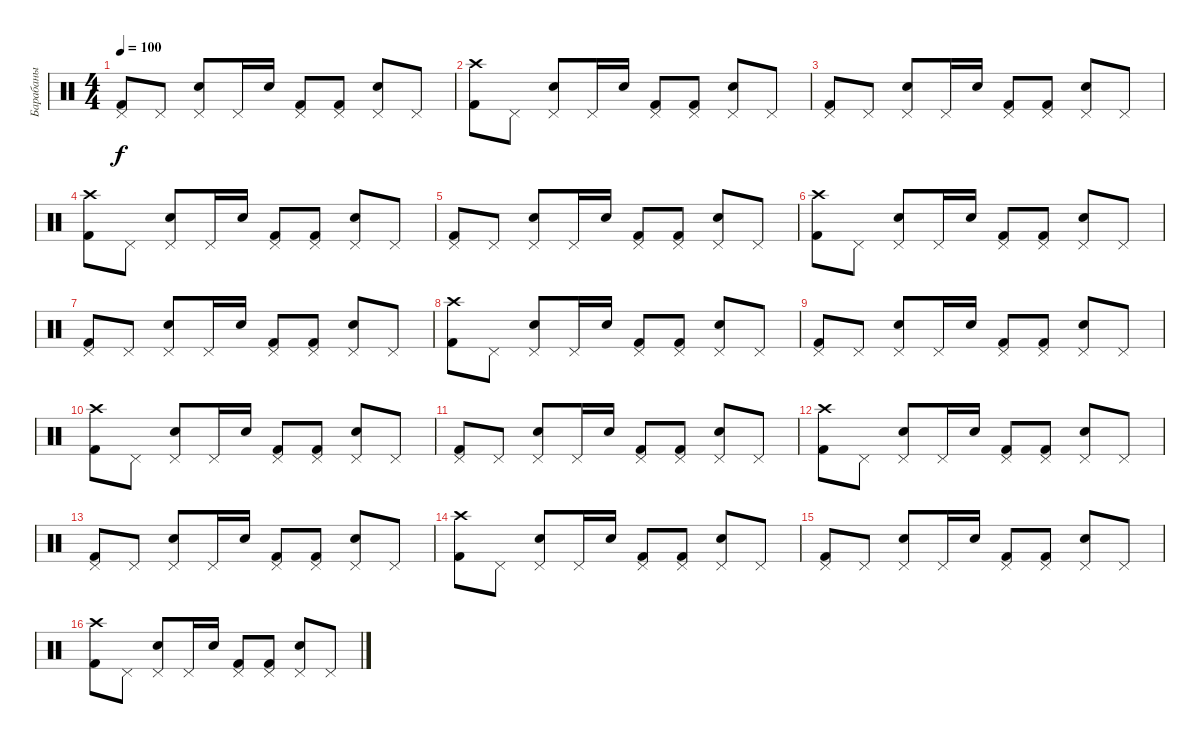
\track ("Барабаны" "Барабаны") {instrument percussion}
\staff {score}
\articulation defaults
\ts (4 4)
\tempo 100
\clef neutral
\ks c
("Pedal Hi-Hat (hit)" "Kick (hit) 2").8{dy f} "Pedal Hi-Hat (hit)".8 ("Pedal Hi-Hat (hit)" "Electric Snare (hit)").8 "Pedal Hi-Hat (hit)".16 "Electric Snare (hit)".16 ("Pedal Hi-Hat (hit)" "Kick (hit) 2").8 ("Pedal Hi-Hat (hit)" "Kick (hit) 2").8 ("Pedal Hi-Hat (hit)" "Electric Snare (hit)").8 "Pedal Hi-Hat (hit)".8 |
("Crash high (hit)" "Kick (hit) 2").8 "Pedal Hi-Hat (hit)".8 ("Pedal Hi-Hat (hit)" "Electric Snare (hit)").8 "Pedal Hi-Hat (hit)".16 "Electric Snare (hit)".16 ("Pedal Hi-Hat (hit)" "Kick (hit) 2").8 ("Pedal Hi-Hat (hit)" "Kick (hit) 2").8 ("Pedal Hi-Hat (hit)" "Electric Snare (hit)").8 "Pedal Hi-Hat (hit)".8 |
("Pedal Hi-Hat (hit)" "Kick (hit) 2").8 "Pedal Hi-Hat (hit)".8 ("Pedal Hi-Hat (hit)" "Electric Snare (hit)").8 "Pedal Hi-Hat (hit)".16 "Electric Snare (hit)".16 ("Pedal Hi-Hat (hit)" "Kick (hit) 2").8 ("Pedal Hi-Hat (hit)" "Kick (hit) 2").8 ("Pedal Hi-Hat (hit)" "Electric Snare (hit)").8 "Pedal Hi-Hat (hit)".8 |
("Crash high (hit)" "Kick (hit) 2").8 "Pedal Hi-Hat (hit)".8 ("Pedal Hi-Hat (hit)" "Electric Snare (hit)").8 "Pedal Hi-Hat (hit)".16 "Electric Snare (hit)".16 ("Pedal Hi-Hat (hit)" "Kick (hit) 2").8 ("Pedal Hi-Hat (hit)" "Kick (hit) 2").8 ("Pedal Hi-Hat (hit)" "Electric Snare (hit)").8 "Pedal Hi-Hat (hit)".8 |
("Pedal Hi-Hat (hit)" "Kick (hit) 2").8 "Pedal Hi-Hat (hit)".8 ("Pedal Hi-Hat (hit)" "Electric Snare (hit)").8 "Pedal Hi-Hat (hit)".16 "Electric Snare (hit)".16 ("Pedal Hi-Hat (hit)" "Kick (hit) 2").8 ("Pedal Hi-Hat (hit)" "Kick (hit) 2").8 ("Pedal Hi-Hat (hit)" "Electric Snare (hit)").8 "Pedal Hi-Hat (hit)".8 |
("Crash high (hit)" "Kick (hit) 2").8 "Pedal Hi-Hat (hit)".8 ("Pedal Hi-Hat (hit)" "Electric Snare (hit)").8 "Pedal Hi-Hat (hit)".16 "Electric Snare (hit)".16 ("Pedal Hi-Hat (hit)" "Kick (hit) 2").8 ("Pedal Hi-Hat (hit)" "Kick (hit) 2").8 ("Pedal Hi-Hat (hit)" "Electric Snare (hit)").8 "Pedal Hi-Hat (hit)".8 |
("Pedal Hi-Hat (hit)" "Kick (hit) 2").8 "Pedal Hi-Hat (hit)".8 ("Pedal Hi-Hat (hit)" "Electric Snare (hit)").8 "Pedal Hi-Hat (hit)".16 "Electric Snare (hit)".16 ("Pedal Hi-Hat (hit)" "Kick (hit) 2").8 ("Pedal Hi-Hat (hit)" "Kick (hit) 2").8 ("Pedal Hi-Hat (hit)" "Electric Snare (hit)").8 "Pedal Hi-Hat (hit)".8 |
("Crash high (hit)" "Kick (hit) 2").8 "Pedal Hi-Hat (hit)".8 ("Pedal Hi-Hat (hit)" "Electric Snare (hit)").8 "Pedal Hi-Hat (hit)".16 "Electric Snare (hit)".16 ("Pedal Hi-Hat (hit)" "Kick (hit) 2").8 ("Pedal Hi-Hat (hit)" "Kick (hit) 2").8 ("Pedal Hi-Hat (hit)" "Electric Snare (hit)").8 "Pedal Hi-Hat (hit)".8 |
("Pedal Hi-Hat (hit)" "Kick (hit) 2").8 "Pedal Hi-Hat (hit)".8 ("Pedal Hi-Hat (hit)" "Electric Snare (hit)").8 "Pedal Hi-Hat (hit)".16 "Electric Snare (hit)".16 ("Pedal Hi-Hat (hit)" "Kick (hit) 2").8 ("Pedal Hi-Hat (hit)" "Kick (hit) 2").8 ("Pedal Hi-Hat (hit)" "Electric Snare (hit)").8 "Pedal Hi-Hat (hit)".8 |
("Crash high (hit)" "Kick (hit) 2").8 "Pedal Hi-Hat (hit)".8 ("Pedal Hi-Hat (hit)" "Electric Snare (hit)").8 "Pedal Hi-Hat (hit)".16 "Electric Snare (hit)".16 ("Pedal Hi-Hat (hit)" "Kick (hit) 2").8 ("Pedal Hi-Hat (hit)" "Kick (hit) 2").8 ("Pedal Hi-Hat (hit)" "Electric Snare (hit)").8 "Pedal Hi-Hat (hit)".8 |
("Pedal Hi-Hat (hit)" "Kick (hit) 2").8 "Pedal Hi-Hat (hit)".8 ("Pedal Hi-Hat (hit)" "Electric Snare (hit)").8 "Pedal Hi-Hat (hit)".16 "Electric Snare (hit)".16 ("Pedal Hi-Hat (hit)" "Kick (hit) 2").8 ("Pedal Hi-Hat (hit)" "Kick (hit) 2").8 ("Pedal Hi-Hat (hit)" "Electric Snare (hit)").8 "Pedal Hi-Hat (hit)".8 |
("Crash high (hit)" "Kick (hit) 2").8 "Pedal Hi-Hat (hit)".8 ("Pedal Hi-Hat (hit)" "Electric Snare (hit)").8 "Pedal Hi-Hat (hit)".16 "Electric Snare (hit)".16 ("Pedal Hi-Hat (hit)" "Kick (hit) 2").8 ("Pedal Hi-Hat (hit)" "Kick (hit) 2").8 ("Pedal Hi-Hat (hit)" "Electric Snare (hit)").8 "Pedal Hi-Hat (hit)".8 |
("Pedal Hi-Hat (hit)" "Kick (hit) 2").8 "Pedal Hi-Hat (hit)".8 ("Pedal Hi-Hat (hit)" "Electric Snare (hit)").8 "Pedal Hi-Hat (hit)".16 "Electric Snare (hit)".16 ("Pedal Hi-Hat (hit)" "Kick (hit) 2").8 ("Pedal Hi-Hat (hit)" "Kick (hit) 2").8 ("Pedal Hi-Hat (hit)" "Electric Snare (hit)").8 "Pedal Hi-Hat (hit)".8 |
("Crash high (hit)" "Kick (hit) 2").8 "Pedal Hi-Hat (hit)".8 ("Pedal Hi-Hat (hit)" "Electric Snare (hit)").8 "Pedal Hi-Hat (hit)".16 "Electric Snare (hit)".16 ("Pedal Hi-Hat (hit)" "Kick (hit) 2").8 ("Pedal Hi-Hat (hit)" "Kick (hit) 2").8 ("Pedal Hi-Hat (hit)" "Electric Snare (hit)").8 "Pedal Hi-Hat (hit)".8 |
("Pedal Hi-Hat (hit)" "Kick (hit) 2").8 "Pedal Hi-Hat (hit)".8 ("Pedal Hi-Hat (hit)" "Electric Snare (hit)").8 "Pedal Hi-Hat (hit)".16 "Electric Snare (hit)".16 ("Pedal Hi-Hat (hit)" "Kick (hit) 2").8 ("Pedal Hi-Hat (hit)" "Kick (hit) 2").8 ("Pedal Hi-Hat (hit)" "Electric Snare (hit)").8 "Pedal Hi-Hat (hit)".8 |
("Crash high (hit)" "Kick (hit) 2").8 "Pedal Hi-Hat (hit)".8 ("Pedal Hi-Hat (hit)" "Electric Snare (hit)").8 "Pedal Hi-Hat (hit)".16 "Electric Snare (hit)".16 ("Pedal Hi-Hat (hit)" "Kick (hit) 2").8 ("Pedal Hi-Hat (hit)" "Kick (hit) 2").8 ("Pedal Hi-Hat (hit)" "Electric Snare (hit)").8 "Pedal Hi-Hat (hit)".8
